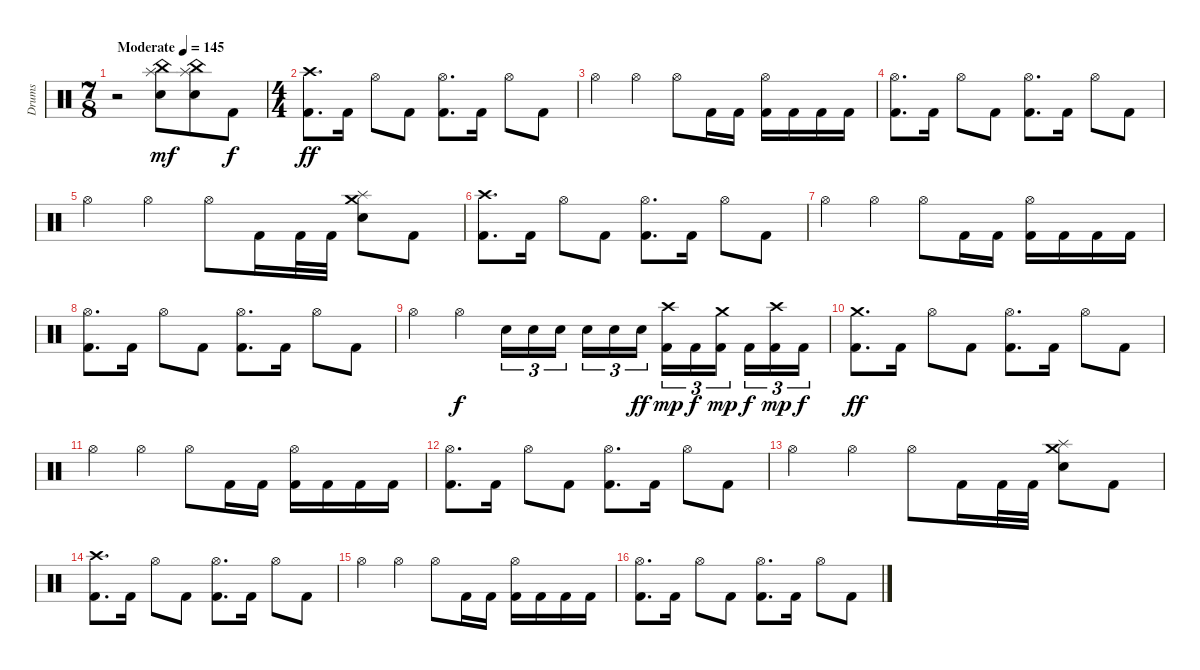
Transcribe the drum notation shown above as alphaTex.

\track ("Drums" "Drums") {instrument percussion}
\staff {score}
\articulation defaults
\ts (7 8)
\tempo (145 "Moderate")
\clef neutral
\ks c
r.2{dy mf} ("Splash (hit)" "China (hit)" "Electric Snare (hit)").8 ("Splash (hit)" "China (hit)" "Electric Snare (hit)").8 "Kick (hit) 2".8{dy f} |
\ts (4 4)
("Crash high (hit)" "Kick (hit) 2").8{d dy ff} "Kick (hit) 2".16 "Hi-Hat (open)".8 "Kick (hit) 2".8 ("Hi-Hat (open)" "Kick (hit) 2").8{d} "Kick (hit) 2".16 "Hi-Hat (open)".8 "Kick (hit) 2".8 |
"Hi-Hat (open)".4 "Hi-Hat (open)".4 "Hi-Hat (open)".8 "Kick (hit) 2".16 "Kick (hit) 2".16 ("Hi-Hat (open)" "Kick (hit) 2").16 "Kick (hit) 2".16 "Kick (hit) 2".16 "Kick (hit) 2".16 |
("Hi-Hat (open)" "Kick (hit) 2").8{d} "Kick (hit) 2".16 "Hi-Hat (open)".8 "Kick (hit) 2".8 ("Hi-Hat (open)" "Kick (hit) 2").8{d} "Kick (hit) 2".16 "Hi-Hat (open)".8 "Kick (hit) 2".8 |
"Hi-Hat (open)".4 "Hi-Hat (open)".4 "Hi-Hat (open)".8 "Kick (hit) 2".16 "Kick (hit) 2".32 "Kick (hit) 2".32 ("Crash medium (hit)" "Splash (hit)" "Electric Snare (hit)").8 "Kick (hit) 2".8 |
("Crash high (hit)" "Kick (hit) 2").8{d} "Kick (hit) 2".16 "Hi-Hat (open)".8 "Kick (hit) 2".8 ("Hi-Hat (open)" "Kick (hit) 2").8{d} "Kick (hit) 2".16 "Hi-Hat (open)".8 "Kick (hit) 2".8 |
"Hi-Hat (open)".4 "Hi-Hat (open)".4 "Hi-Hat (open)".8 "Kick (hit) 2".16 "Kick (hit) 2".16 ("Hi-Hat (open)" "Kick (hit) 2").16 "Kick (hit) 2".16 "Kick (hit) 2".16 "Kick (hit) 2".16 |
("Hi-Hat (open)" "Kick (hit) 2").8{d} "Kick (hit) 2".16 "Hi-Hat (open)".8 "Kick (hit) 2".8 ("Hi-Hat (open)" "Kick (hit) 2").8{d} "Kick (hit) 2".16 "Hi-Hat (open)".8 "Kick (hit) 2".8 |
"Hi-Hat (open)".4 "Hi-Hat (open)".4{dy f} "Electric Snare (hit)".16{tu (3 2)} "Electric Snare (hit)".16{tu (3 2)} "Electric Snare (hit)".16{tu (3 2) beam splitsecondary} "Electric Snare (hit)".16{tu (3 2)} "Electric Snare (hit)".16{tu (3 2)} "Electric Snare (hit)".16{tu (3 2) dy ff} ("Crash high (hit)" "Kick (hit) 2").16{tu (3 2) dy mp} "Kick (hit) 2".16{tu (3 2) dy f} ("Crash medium (hit)" "Kick (hit) 2").16{tu (3 2) dy mp beam splitsecondary} "Kick (hit) 2".16{tu (3 2) dy f} ("Crash high (hit)" "Kick (hit) 2").16{tu (3 2) dy mp} "Kick (hit) 2".16{tu (3 2) dy f} |
("Crash medium (hit)" "Kick (hit) 2").8{d dy ff} "Kick (hit) 2".16 "Hi-Hat (open)".8 "Kick (hit) 2".8 ("Hi-Hat (open)" "Kick (hit) 2").8{d} "Kick (hit) 2".16 "Hi-Hat (open)".8 "Kick (hit) 2".8 |
"Hi-Hat (open)".4 "Hi-Hat (open)".4 "Hi-Hat (open)".8 "Kick (hit) 2".16 "Kick (hit) 2".16 ("Hi-Hat (open)" "Kick (hit) 2").16 "Kick (hit) 2".16 "Kick (hit) 2".16 "Kick (hit) 2".16 |
("Hi-Hat (open)" "Kick (hit) 2").8{d} "Kick (hit) 2".16 "Hi-Hat (open)".8 "Kick (hit) 2".8 ("Hi-Hat (open)" "Kick (hit) 2").8{d} "Kick (hit) 2".16 "Hi-Hat (open)".8 "Kick (hit) 2".8 |
"Hi-Hat (open)".4 "Hi-Hat (open)".4 "Hi-Hat (open)".8 "Kick (hit) 2".16 "Kick (hit) 2".32 "Kick (hit) 2".32 ("Crash medium (hit)" "Splash (hit)" "Electric Snare (hit)").8 "Kick (hit) 2".8 |
("Crash high (hit)" "Kick (hit) 2").8{d} "Kick (hit) 2".16 "Hi-Hat (open)".8 "Kick (hit) 2".8 ("Hi-Hat (open)" "Kick (hit) 2").8{d} "Kick (hit) 2".16 "Hi-Hat (open)".8 "Kick (hit) 2".8 |
"Hi-Hat (open)".4 "Hi-Hat (open)".4 "Hi-Hat (open)".8 "Kick (hit) 2".16 "Kick (hit) 2".16 ("Hi-Hat (open)" "Kick (hit) 2").16 "Kick (hit) 2".16 "Kick (hit) 2".16 "Kick (hit) 2".16 |
("Hi-Hat (open)" "Kick (hit) 2").8{d} "Kick (hit) 2".16 "Hi-Hat (open)".8 "Kick (hit) 2".8 ("Hi-Hat (open)" "Kick (hit) 2").8{d} "Kick (hit) 2".16 "Hi-Hat (open)".8 "Kick (hit) 2".8
